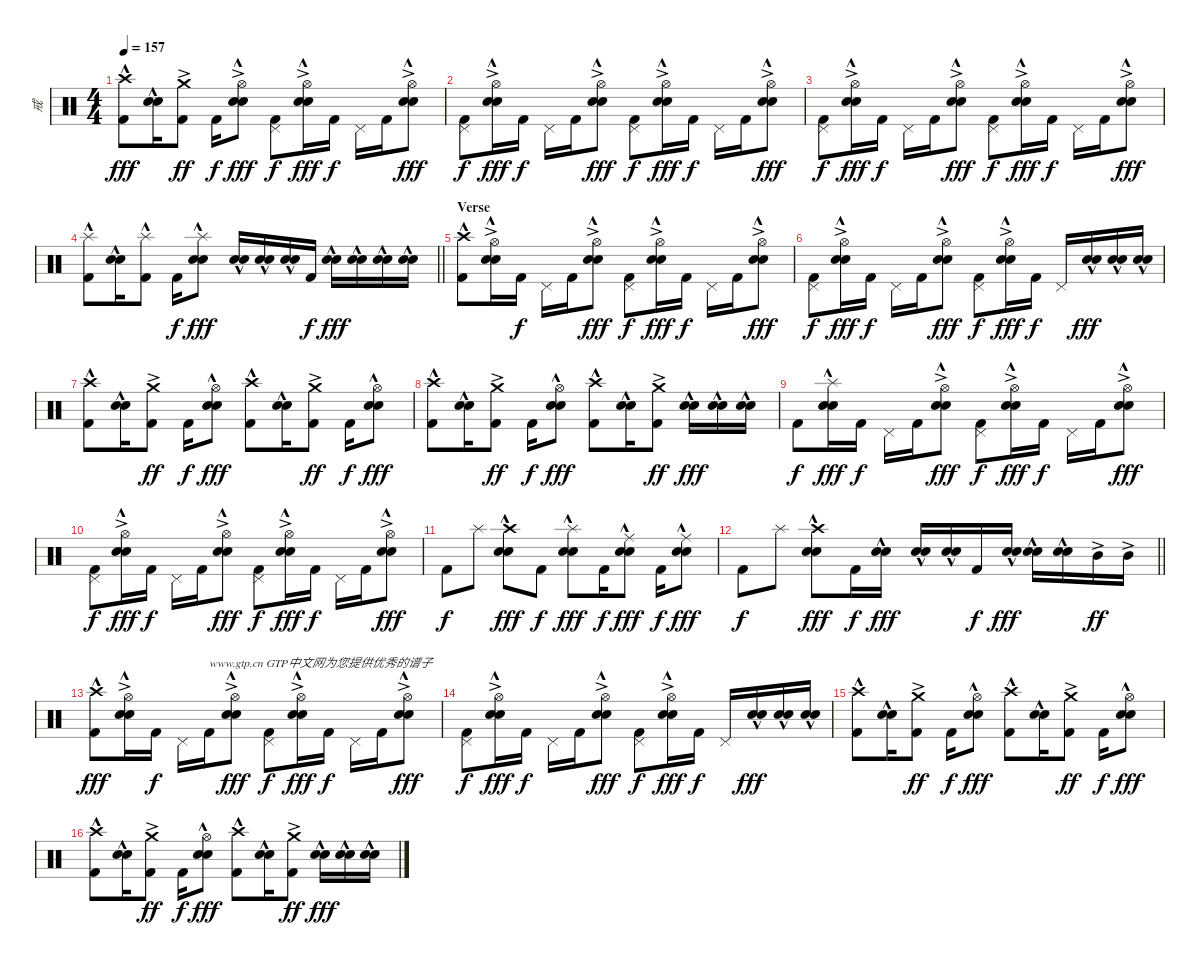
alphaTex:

\track ("戒" "戒") {instrument percussion}
\staff {score}
\articulation defaults
\ts (4 4)
\tempo 157
\clef neutral
\ks c
("Crash high (hit)"{hac} "Kick (hit) 2").8{dy fff} ("Electric Snare (hit)"{hac} "Snare (hit) 2").16 ("Crash medium (hit)"{ac} "Kick (hit) 2").8{dy ff} "Kick (hit) 2".16{dy f} ("Hi-Hat (open)"{ac} "Electric Snare (hit)"{hac} "Snare (hit) 2").8{dy fff} ("Pedal Hi-Hat (hit)" "Kick (hit) 2").8{dy f} ("Hi-Hat (open)"{ac} "Electric Snare (hit)"{hac} "Snare (hit) 2").16{dy fff} "Kick (hit) 2".16{dy f} "Pedal Hi-Hat (hit)".16 "Kick (hit) 2".16 ("Hi-Hat (open)"{ac} "Electric Snare (hit)"{hac} "Snare (hit) 2").8{dy fff} |
("Pedal Hi-Hat (hit)" "Kick (hit) 2").8{dy f} ("Hi-Hat (open)"{ac} "Electric Snare (hit)"{hac} "Snare (hit) 2").16{dy fff} "Kick (hit) 2".16{dy f} "Pedal Hi-Hat (hit)".16 "Kick (hit) 2".16 ("Hi-Hat (open)"{ac} "Electric Snare (hit)"{hac} "Snare (hit) 2").8{dy fff} ("Pedal Hi-Hat (hit)" "Kick (hit) 2").8{dy f} ("Hi-Hat (open)"{ac} "Electric Snare (hit)"{hac} "Snare (hit) 2").16{dy fff} "Kick (hit) 2".16{dy f} "Pedal Hi-Hat (hit)".16 "Kick (hit) 2".16 ("Hi-Hat (open)"{ac} "Electric Snare (hit)"{hac} "Snare (hit) 2").8{dy fff} |
("Pedal Hi-Hat (hit)" "Kick (hit) 2").8{dy f} ("Hi-Hat (open)"{ac} "Electric Snare (hit)"{hac} "Snare (hit) 2").16{dy fff} "Kick (hit) 2".16{dy f} "Pedal Hi-Hat (hit)".16 "Kick (hit) 2".16 ("Hi-Hat (open)"{ac} "Electric Snare (hit)"{hac} "Snare (hit) 2").8{dy fff} ("Pedal Hi-Hat (hit)" "Kick (hit) 2").8{dy f} ("Hi-Hat (open)"{ac} "Electric Snare (hit)"{hac} "Snare (hit) 2").16{dy fff} "Kick (hit) 2".16{dy f} "Pedal Hi-Hat (hit)".16 "Kick (hit) 2".16 ("Hi-Hat (open)"{ac} "Electric Snare (hit)"{hac} "Snare (hit) 2").8{dy fff} |
\barLineRight lightlight
("Splash (hit)"{hac} "Kick (hit) 2").8 ("Electric Snare (hit)"{hac} "Snare (hit) 2").16 ("Splash (hit)"{hac} "Kick (hit) 2").8 "Kick (hit) 2".16{dy f} ("Splash (hit)"{hac} "Electric Snare (hit)"{hac} "Snare (hit) 2").8{dy fff} ("Electric Snare (hit)"{hac} "Snare (hit) 2").16 ("Electric Snare (hit)"{hac} "Snare (hit) 2").16 ("Electric Snare (hit)"{hac} "Snare (hit) 2").16 "Kick (hit) 2".16{dy f} ("Electric Snare (hit)"{hac} "Snare (hit) 2").16{dy fff} ("Electric Snare (hit)"{hac} "Snare (hit) 2").16 ("Electric Snare (hit)"{hac} "Snare (hit) 2").16 ("Electric Snare (hit)"{hac} "Snare (hit) 2").16 |
\section ("" "Verse")
("Crash high (hit)"{hac} "Kick (hit) 2").8 ("Hi-Hat (open)"{ac} "Electric Snare (hit)"{hac} "Snare (hit) 2").16 "Kick (hit) 2".16{dy f} "Pedal Hi-Hat (hit)".16 "Kick (hit) 2".16 ("Hi-Hat (open)"{ac} "Electric Snare (hit)"{hac} "Snare (hit) 2").8{dy fff} ("Pedal Hi-Hat (hit)" "Kick (hit) 2").8{dy f} ("Hi-Hat (open)"{ac} "Electric Snare (hit)"{hac} "Snare (hit) 2").16{dy fff} "Kick (hit) 2".16{dy f} "Pedal Hi-Hat (hit)".16 "Kick (hit) 2".16 ("Hi-Hat (open)"{ac} "Electric Snare (hit)"{hac} "Snare (hit) 2").8{dy fff} |
("Pedal Hi-Hat (hit)" "Kick (hit) 2").8{dy f} ("Hi-Hat (open)"{ac} "Electric Snare (hit)"{hac} "Snare (hit) 2").16{dy fff} "Kick (hit) 2".16{dy f} "Pedal Hi-Hat (hit)".16 "Kick (hit) 2".16 ("Hi-Hat (open)"{ac} "Electric Snare (hit)"{hac} "Snare (hit) 2").8{dy fff} ("Pedal Hi-Hat (hit)" "Kick (hit) 2").8{dy f} ("Hi-Hat (open)"{ac} "Electric Snare (hit)"{hac} "Snare (hit) 2").16{dy fff} "Kick (hit) 2".16{dy f} "Pedal Hi-Hat (hit)".16 ("Electric Snare (hit)"{hac} "Snare (hit) 2").16{dy fff} ("Electric Snare (hit)"{hac} "Snare (hit) 2").16 ("Electric Snare (hit)"{hac} "Snare (hit) 2").16 |
("Crash high (hit)"{hac} "Kick (hit) 2").8 ("Electric Snare (hit)"{hac} "Snare (hit) 2").16 ("Crash medium (hit)"{ac} "Kick (hit) 2").8{dy ff} "Kick (hit) 2".16{dy f} ("Hi-Hat (open)" "Electric Snare (hit)"{hac} "Snare (hit) 2").8{dy fff} ("Crash high (hit)"{hac} "Kick (hit) 2").8 ("Electric Snare (hit)"{hac} "Snare (hit) 2").16 ("Crash medium (hit)"{ac} "Kick (hit) 2").8{dy ff} "Kick (hit) 2".16{dy f} ("Hi-Hat (open)" "Electric Snare (hit)"{hac} "Snare (hit) 2").8{dy fff} |
("Crash high (hit)"{hac} "Kick (hit) 2").8 ("Electric Snare (hit)"{hac} "Snare (hit) 2").16 ("Crash medium (hit)"{ac} "Kick (hit) 2").8{dy ff} "Kick (hit) 2".16{dy f} ("Hi-Hat (open)" "Electric Snare (hit)"{hac} "Snare (hit) 2").8{dy fff} ("Crash high (hit)"{hac} "Kick (hit) 2").8 ("Electric Snare (hit)"{hac} "Snare (hit) 2").16 ("Crash medium (hit)"{ac} "Kick (hit) 2").8{dy ff} ("Electric Snare (hit)"{hac} "Snare (hit) 2").16{dy fff} ("Electric Snare (hit)"{hac} "Snare (hit) 2").16 ("Electric Snare (hit)"{hac} "Snare (hit) 2").16 |
"Kick (hit) 2".8{dy f} ("Splash (hit)"{hac} "Electric Snare (hit)"{hac} "Snare (hit) 2").16{dy fff} "Kick (hit) 2".16{dy f} "Pedal Hi-Hat (hit)".16 "Kick (hit) 2".16 ("Hi-Hat (open)"{ac} "Electric Snare (hit)"{hac} "Snare (hit) 2").8{dy fff} ("Pedal Hi-Hat (hit)" "Kick (hit) 2").8{dy f} ("Hi-Hat (open)"{ac} "Electric Snare (hit)"{hac} "Snare (hit) 2").16{dy fff} "Kick (hit) 2".16{dy f} "Pedal Hi-Hat (hit)".16 "Kick (hit) 2".16 ("Hi-Hat (open)"{ac} "Electric Snare (hit)"{hac} "Snare (hit) 2").8{dy fff} |
("Pedal Hi-Hat (hit)" "Kick (hit) 2").8{dy f} ("Hi-Hat (open)"{ac} "Electric Snare (hit)"{hac} "Snare (hit) 2").16{dy fff} "Kick (hit) 2".16{dy f} "Pedal Hi-Hat (hit)".16 "Kick (hit) 2".16 ("Hi-Hat (open)"{ac} "Electric Snare (hit)"{hac} "Snare (hit) 2").8{dy fff} ("Pedal Hi-Hat (hit)" "Kick (hit) 2").8{dy f} ("Hi-Hat (open)"{ac} "Electric Snare (hit)"{hac} "Snare (hit) 2").16{dy fff} "Kick (hit) 2".16{dy f} "Pedal Hi-Hat (hit)".16 "Kick (hit) 2".16 ("Hi-Hat (open)"{ac} "Electric Snare (hit)"{hac} "Snare (hit) 2").8{dy fff} |
"Kick (hit) 2".8{dy f} "Splash (hit)".8 ("Crash high (hit)"{hac} "Electric Snare (hit)"{hac} "Snare (hit) 2").8{dy fff} "Kick (hit) 2".8{dy f} ("Splash (hit)"{hac} "Electric Snare (hit)"{hac} "Snare (hit) 2").8{dy fff} "Kick (hit) 2".16{dy f} ("Ride (middle)"{hac} "Electric Snare (hit)"{hac} "Snare (hit) 2").8{dy fff} "Kick (hit) 2".16{dy f} ("Ride (middle)" "Electric Snare (hit)"{hac} "Snare (hit) 2").8{dy fff} |
\barLineRight lightlight "Kick (hit) 2".8{dy f} "Splash (hit)".8
("Crash high (hit)"{hac} "Electric Snare (hit)"{hac} "Snare (hit) 2").8{dy fff} "Kick (hit) 2".16{dy f} ("Electric Snare (hit)"{hac} "Snare (hit) 2").16{dy fff} ("Electric Snare (hit)"{hac} "Snare (hit) 2").16 ("Electric Snare (hit)"{hac} "Snare (hit) 2").16 "Kick (hit) 2".16{dy f} ("Electric Snare (hit)"{hac} "Snare (hit) 2").16{dy fff} ("Electric Snare (hit)"{hac} "Snare (hit) 2").16 ("Electric Snare (hit)"{hac} "Snare (hit) 2").16 "Mid Tom (hit)"{ac}.16{dy ff} "Mid Tom (hit)"{ac}.16 |
\section ("" "")
("Crash high (hit)"{hac} "Kick (hit) 2").8{dy fff} ("Hi-Hat (open)"{ac} "Electric Snare (hit)"{hac} "Snare (hit) 2").16 "Kick (hit) 2".16{dy f} "Pedal Hi-Hat (hit)".16 "Kick (hit) 2".16{txt "www.gtp.cn GTP中文网为您提供优秀的谱子"} ("Hi-Hat (open)"{ac} "Electric Snare (hit)"{hac} "Snare (hit) 2").8{dy fff} ("Pedal Hi-Hat (hit)" "Kick (hit) 2").8{dy f} ("Hi-Hat (open)"{ac} "Electric Snare (hit)"{hac} "Snare (hit) 2").16{dy fff} "Kick (hit) 2".16{dy f} "Pedal Hi-Hat (hit)".16 "Kick (hit) 2".16 ("Hi-Hat (open)"{ac} "Electric Snare (hit)"{hac} "Snare (hit) 2").8{dy fff} |
("Pedal Hi-Hat (hit)" "Kick (hit) 2").8{dy f} ("Hi-Hat (open)"{ac} "Electric Snare (hit)"{hac} "Snare (hit) 2").16{dy fff} "Kick (hit) 2".16{dy f} "Pedal Hi-Hat (hit)".16 "Kick (hit) 2".16 ("Hi-Hat (open)"{ac} "Electric Snare (hit)"{hac} "Snare (hit) 2").8{dy fff} ("Pedal Hi-Hat (hit)" "Kick (hit) 2").8{dy f} ("Hi-Hat (open)"{ac} "Electric Snare (hit)"{hac} "Snare (hit) 2").16{dy fff} "Kick (hit) 2".16{dy f} "Pedal Hi-Hat (hit)".16 ("Electric Snare (hit)"{hac} "Snare (hit) 2").16{dy fff} ("Electric Snare (hit)"{hac} "Snare (hit) 2").16 ("Electric Snare (hit)"{hac} "Snare (hit) 2").16 |
("Crash high (hit)"{hac} "Kick (hit) 2").8 ("Electric Snare (hit)"{hac} "Snare (hit) 2").16 ("Crash medium (hit)"{ac} "Kick (hit) 2").8{dy ff} "Kick (hit) 2".16{dy f} ("Hi-Hat (open)" "Electric Snare (hit)"{hac} "Snare (hit) 2").8{dy fff} ("Crash high (hit)"{hac} "Kick (hit) 2").8 ("Electric Snare (hit)"{hac} "Snare (hit) 2").16 ("Crash medium (hit)"{ac} "Kick (hit) 2").8{dy ff} "Kick (hit) 2".16{dy f} ("Hi-Hat (open)" "Electric Snare (hit)"{hac} "Snare (hit) 2").8{dy fff} |
("Crash high (hit)"{hac} "Kick (hit) 2").8 ("Electric Snare (hit)"{hac} "Snare (hit) 2").16 ("Crash medium (hit)"{ac} "Kick (hit) 2").8{dy ff} "Kick (hit) 2".16{dy f} ("Hi-Hat (open)" "Electric Snare (hit)"{hac} "Snare (hit) 2").8{dy fff} ("Crash high (hit)"{hac} "Kick (hit) 2").8 ("Electric Snare (hit)"{hac} "Snare (hit) 2").16 ("Crash medium (hit)"{ac} "Kick (hit) 2").8{dy ff} ("Electric Snare (hit)"{hac} "Snare (hit) 2").16{dy fff} ("Electric Snare (hit)"{hac} "Snare (hit) 2").16 ("Electric Snare (hit)"{hac} "Snare (hit) 2").16
